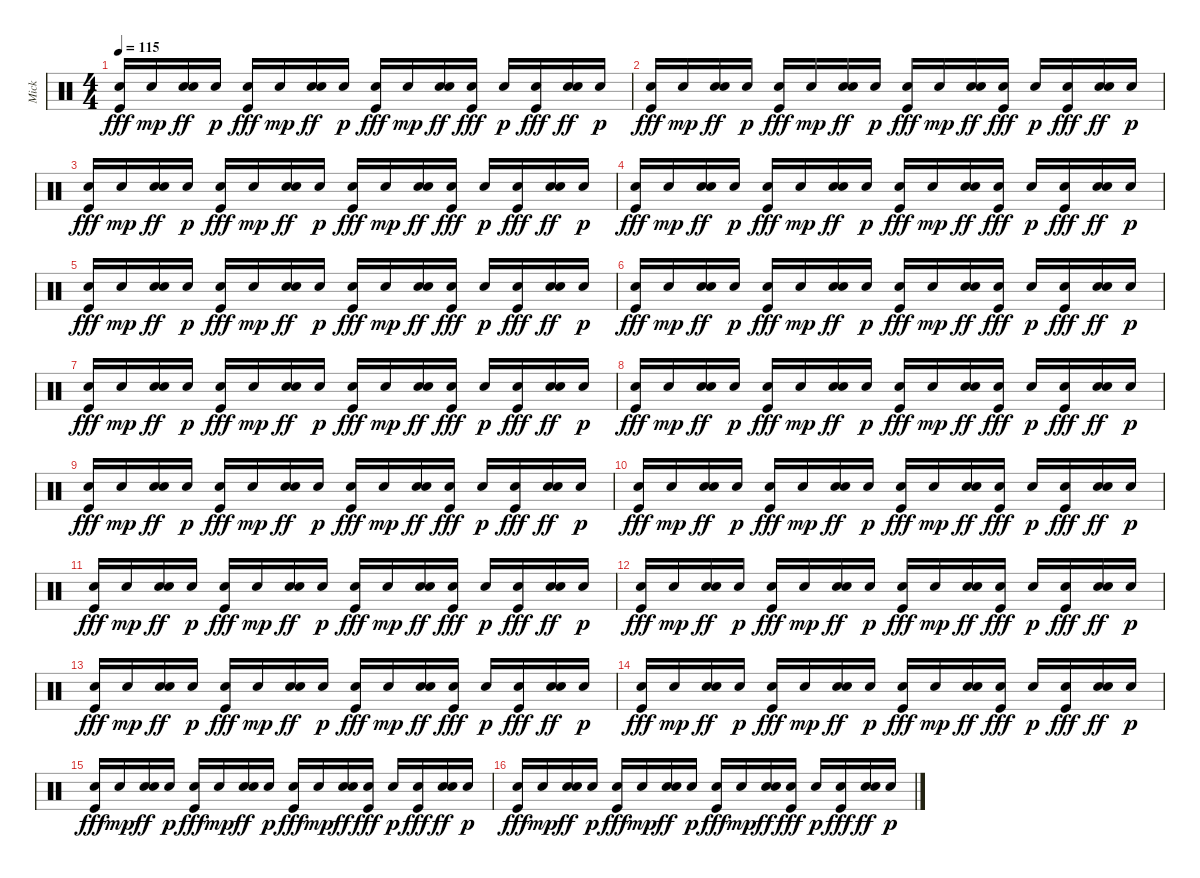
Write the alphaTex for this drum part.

\track ("Mick" "Mick") {instrument percussion}
\staff {score}
\articulation defaults
\ts (4 4)
\tempo 115
\clef neutral
\ks c
("Electric Snare (hit)" "Kick (hit)").16{dy fff} "Electric Snare (hit)".16{dy mp} ("Hand Clap (hit)" "Electric Snare (hit)").16{dy ff} "Electric Snare (hit)".16{dy p} ("Electric Snare (hit)" "Kick (hit)").16{dy fff} "Electric Snare (hit)".16{dy mp} ("Hand Clap (hit)" "Electric Snare (hit)").16{dy ff} "Electric Snare (hit)".16{dy p} ("Electric Snare (hit)" "Kick (hit)").16{dy fff} "Electric Snare (hit)".16{dy mp} ("Hand Clap (hit)" "Electric Snare (hit)").16{dy ff} ("Electric Snare (hit)" "Kick (hit)").16{dy fff} "Electric Snare (hit)".16{dy p} ("Electric Snare (hit)" "Kick (hit)").16{dy fff} ("Hand Clap (hit)" "Electric Snare (hit)").16{dy ff} "Electric Snare (hit)".16{dy p} |
("Electric Snare (hit)" "Kick (hit)").16{dy fff} "Electric Snare (hit)".16{dy mp} ("Hand Clap (hit)" "Electric Snare (hit)").16{dy ff} "Electric Snare (hit)".16{dy p} ("Electric Snare (hit)" "Kick (hit)").16{dy fff} "Electric Snare (hit)".16{dy mp} ("Hand Clap (hit)" "Electric Snare (hit)").16{dy ff} "Electric Snare (hit)".16{dy p} ("Electric Snare (hit)" "Kick (hit)").16{dy fff} "Electric Snare (hit)".16{dy mp} ("Hand Clap (hit)" "Electric Snare (hit)").16{dy ff} ("Electric Snare (hit)" "Kick (hit)").16{dy fff} "Electric Snare (hit)".16{dy p} ("Electric Snare (hit)" "Kick (hit)").16{dy fff} ("Hand Clap (hit)" "Electric Snare (hit)").16{dy ff} "Electric Snare (hit)".16{dy p} |
("Electric Snare (hit)" "Kick (hit)").16{dy fff} "Electric Snare (hit)".16{dy mp} ("Hand Clap (hit)" "Electric Snare (hit)").16{dy ff} "Electric Snare (hit)".16{dy p} ("Electric Snare (hit)" "Kick (hit)").16{dy fff} "Electric Snare (hit)".16{dy mp} ("Hand Clap (hit)" "Electric Snare (hit)").16{dy ff} "Electric Snare (hit)".16{dy p} ("Electric Snare (hit)" "Kick (hit)").16{dy fff} "Electric Snare (hit)".16{dy mp} ("Hand Clap (hit)" "Electric Snare (hit)").16{dy ff} ("Electric Snare (hit)" "Kick (hit)").16{dy fff} "Electric Snare (hit)".16{dy p} ("Electric Snare (hit)" "Kick (hit)").16{dy fff} ("Hand Clap (hit)" "Electric Snare (hit)").16{dy ff} "Electric Snare (hit)".16{dy p} |
("Electric Snare (hit)" "Kick (hit)").16{dy fff} "Electric Snare (hit)".16{dy mp} ("Hand Clap (hit)" "Electric Snare (hit)").16{dy ff} "Electric Snare (hit)".16{dy p} ("Electric Snare (hit)" "Kick (hit)").16{dy fff} "Electric Snare (hit)".16{dy mp} ("Hand Clap (hit)" "Electric Snare (hit)").16{dy ff} "Electric Snare (hit)".16{dy p} ("Electric Snare (hit)" "Kick (hit)").16{dy fff} "Electric Snare (hit)".16{dy mp} ("Hand Clap (hit)" "Electric Snare (hit)").16{dy ff} ("Electric Snare (hit)" "Kick (hit)").16{dy fff} "Electric Snare (hit)".16{dy p} ("Electric Snare (hit)" "Kick (hit)").16{dy fff} ("Hand Clap (hit)" "Electric Snare (hit)").16{dy ff} "Electric Snare (hit)".16{dy p} |
("Electric Snare (hit)" "Kick (hit)").16{dy fff} "Electric Snare (hit)".16{dy mp} ("Hand Clap (hit)" "Electric Snare (hit)").16{dy ff} "Electric Snare (hit)".16{dy p} ("Electric Snare (hit)" "Kick (hit)").16{dy fff} "Electric Snare (hit)".16{dy mp} ("Hand Clap (hit)" "Electric Snare (hit)").16{dy ff} "Electric Snare (hit)".16{dy p} ("Electric Snare (hit)" "Kick (hit)").16{dy fff} "Electric Snare (hit)".16{dy mp} ("Hand Clap (hit)" "Electric Snare (hit)").16{dy ff} ("Electric Snare (hit)" "Kick (hit)").16{dy fff} "Electric Snare (hit)".16{dy p} ("Electric Snare (hit)" "Kick (hit)").16{dy fff} ("Hand Clap (hit)" "Electric Snare (hit)").16{dy ff} "Electric Snare (hit)".16{dy p} |
("Electric Snare (hit)" "Kick (hit)").16{dy fff} "Electric Snare (hit)".16{dy mp} ("Hand Clap (hit)" "Electric Snare (hit)").16{dy ff} "Electric Snare (hit)".16{dy p} ("Electric Snare (hit)" "Kick (hit)").16{dy fff} "Electric Snare (hit)".16{dy mp} ("Hand Clap (hit)" "Electric Snare (hit)").16{dy ff} "Electric Snare (hit)".16{dy p} ("Electric Snare (hit)" "Kick (hit)").16{dy fff} "Electric Snare (hit)".16{dy mp} ("Hand Clap (hit)" "Electric Snare (hit)").16{dy ff} ("Electric Snare (hit)" "Kick (hit)").16{dy fff} "Electric Snare (hit)".16{dy p} ("Electric Snare (hit)" "Kick (hit)").16{dy fff} ("Hand Clap (hit)" "Electric Snare (hit)").16{dy ff} "Electric Snare (hit)".16{dy p} |
("Electric Snare (hit)" "Kick (hit)").16{dy fff} "Electric Snare (hit)".16{dy mp} ("Hand Clap (hit)" "Electric Snare (hit)").16{dy ff} "Electric Snare (hit)".16{dy p} ("Electric Snare (hit)" "Kick (hit)").16{dy fff} "Electric Snare (hit)".16{dy mp} ("Hand Clap (hit)" "Electric Snare (hit)").16{dy ff} "Electric Snare (hit)".16{dy p} ("Electric Snare (hit)" "Kick (hit)").16{dy fff} "Electric Snare (hit)".16{dy mp} ("Hand Clap (hit)" "Electric Snare (hit)").16{dy ff} ("Electric Snare (hit)" "Kick (hit)").16{dy fff} "Electric Snare (hit)".16{dy p} ("Electric Snare (hit)" "Kick (hit)").16{dy fff} ("Hand Clap (hit)" "Electric Snare (hit)").16{dy ff} "Electric Snare (hit)".16{dy p} |
("Electric Snare (hit)" "Kick (hit)").16{dy fff} "Electric Snare (hit)".16{dy mp} ("Hand Clap (hit)" "Electric Snare (hit)").16{dy ff} "Electric Snare (hit)".16{dy p} ("Electric Snare (hit)" "Kick (hit)").16{dy fff} "Electric Snare (hit)".16{dy mp} ("Hand Clap (hit)" "Electric Snare (hit)").16{dy ff} "Electric Snare (hit)".16{dy p} ("Electric Snare (hit)" "Kick (hit)").16{dy fff} "Electric Snare (hit)".16{dy mp} ("Hand Clap (hit)" "Electric Snare (hit)").16{dy ff} ("Electric Snare (hit)" "Kick (hit)").16{dy fff} "Electric Snare (hit)".16{dy p} ("Electric Snare (hit)" "Kick (hit)").16{dy fff} ("Hand Clap (hit)" "Electric Snare (hit)").16{dy ff} "Electric Snare (hit)".16{dy p} |
("Electric Snare (hit)" "Kick (hit)").16{dy fff} "Electric Snare (hit)".16{dy mp} ("Hand Clap (hit)" "Electric Snare (hit)").16{dy ff} "Electric Snare (hit)".16{dy p} ("Electric Snare (hit)" "Kick (hit)").16{dy fff} "Electric Snare (hit)".16{dy mp} ("Hand Clap (hit)" "Electric Snare (hit)").16{dy ff} "Electric Snare (hit)".16{dy p} ("Electric Snare (hit)" "Kick (hit)").16{dy fff} "Electric Snare (hit)".16{dy mp} ("Hand Clap (hit)" "Electric Snare (hit)").16{dy ff} ("Electric Snare (hit)" "Kick (hit)").16{dy fff} "Electric Snare (hit)".16{dy p} ("Electric Snare (hit)" "Kick (hit)").16{dy fff} ("Hand Clap (hit)" "Electric Snare (hit)").16{dy ff} "Electric Snare (hit)".16{dy p} |
("Electric Snare (hit)" "Kick (hit)").16{dy fff} "Electric Snare (hit)".16{dy mp} ("Hand Clap (hit)" "Electric Snare (hit)").16{dy ff} "Electric Snare (hit)".16{dy p} ("Electric Snare (hit)" "Kick (hit)").16{dy fff} "Electric Snare (hit)".16{dy mp} ("Hand Clap (hit)" "Electric Snare (hit)").16{dy ff} "Electric Snare (hit)".16{dy p} ("Electric Snare (hit)" "Kick (hit)").16{dy fff} "Electric Snare (hit)".16{dy mp} ("Hand Clap (hit)" "Electric Snare (hit)").16{dy ff} ("Electric Snare (hit)" "Kick (hit)").16{dy fff} "Electric Snare (hit)".16{dy p} ("Electric Snare (hit)" "Kick (hit)").16{dy fff} ("Hand Clap (hit)" "Electric Snare (hit)").16{dy ff} "Electric Snare (hit)".16{dy p} |
("Electric Snare (hit)" "Kick (hit)").16{dy fff} "Electric Snare (hit)".16{dy mp} ("Hand Clap (hit)" "Electric Snare (hit)").16{dy ff} "Electric Snare (hit)".16{dy p} ("Electric Snare (hit)" "Kick (hit)").16{dy fff} "Electric Snare (hit)".16{dy mp} ("Hand Clap (hit)" "Electric Snare (hit)").16{dy ff} "Electric Snare (hit)".16{dy p} ("Electric Snare (hit)" "Kick (hit)").16{dy fff} "Electric Snare (hit)".16{dy mp} ("Hand Clap (hit)" "Electric Snare (hit)").16{dy ff} ("Electric Snare (hit)" "Kick (hit)").16{dy fff} "Electric Snare (hit)".16{dy p} ("Electric Snare (hit)" "Kick (hit)").16{dy fff} ("Hand Clap (hit)" "Electric Snare (hit)").16{dy ff} "Electric Snare (hit)".16{dy p} |
("Electric Snare (hit)" "Kick (hit)").16{dy fff} "Electric Snare (hit)".16{dy mp} ("Hand Clap (hit)" "Electric Snare (hit)").16{dy ff} "Electric Snare (hit)".16{dy p} ("Electric Snare (hit)" "Kick (hit)").16{dy fff} "Electric Snare (hit)".16{dy mp} ("Hand Clap (hit)" "Electric Snare (hit)").16{dy ff} "Electric Snare (hit)".16{dy p} ("Electric Snare (hit)" "Kick (hit)").16{dy fff} "Electric Snare (hit)".16{dy mp} ("Hand Clap (hit)" "Electric Snare (hit)").16{dy ff} ("Electric Snare (hit)" "Kick (hit)").16{dy fff} "Electric Snare (hit)".16{dy p} ("Electric Snare (hit)" "Kick (hit)").16{dy fff} ("Hand Clap (hit)" "Electric Snare (hit)").16{dy ff} "Electric Snare (hit)".16{dy p} |
("Electric Snare (hit)" "Kick (hit)").16{dy fff} "Electric Snare (hit)".16{dy mp} ("Hand Clap (hit)" "Electric Snare (hit)").16{dy ff} "Electric Snare (hit)".16{dy p} ("Electric Snare (hit)" "Kick (hit)").16{dy fff} "Electric Snare (hit)".16{dy mp} ("Hand Clap (hit)" "Electric Snare (hit)").16{dy ff} "Electric Snare (hit)".16{dy p} ("Electric Snare (hit)" "Kick (hit)").16{dy fff} "Electric Snare (hit)".16{dy mp} ("Hand Clap (hit)" "Electric Snare (hit)").16{dy ff} ("Electric Snare (hit)" "Kick (hit)").16{dy fff} "Electric Snare (hit)".16{dy p} ("Electric Snare (hit)" "Kick (hit)").16{dy fff} ("Hand Clap (hit)" "Electric Snare (hit)").16{dy ff} "Electric Snare (hit)".16{dy p} |
("Electric Snare (hit)" "Kick (hit)").16{dy fff} "Electric Snare (hit)".16{dy mp} ("Hand Clap (hit)" "Electric Snare (hit)").16{dy ff} "Electric Snare (hit)".16{dy p} ("Electric Snare (hit)" "Kick (hit)").16{dy fff} "Electric Snare (hit)".16{dy mp} ("Hand Clap (hit)" "Electric Snare (hit)").16{dy ff} "Electric Snare (hit)".16{dy p} ("Electric Snare (hit)" "Kick (hit)").16{dy fff} "Electric Snare (hit)".16{dy mp} ("Hand Clap (hit)" "Electric Snare (hit)").16{dy ff} ("Electric Snare (hit)" "Kick (hit)").16{dy fff} "Electric Snare (hit)".16{dy p} ("Electric Snare (hit)" "Kick (hit)").16{dy fff} ("Hand Clap (hit)" "Electric Snare (hit)").16{dy ff} "Electric Snare (hit)".16{dy p} |
("Electric Snare (hit)" "Kick (hit)").16{dy fff} "Electric Snare (hit)".16{dy mp} ("Hand Clap (hit)" "Electric Snare (hit)").16{dy ff} "Electric Snare (hit)".16{dy p} ("Electric Snare (hit)" "Kick (hit)").16{dy fff} "Electric Snare (hit)".16{dy mp} ("Hand Clap (hit)" "Electric Snare (hit)").16{dy ff} "Electric Snare (hit)".16{dy p} ("Electric Snare (hit)" "Kick (hit)").16{dy fff} "Electric Snare (hit)".16{dy mp} ("Hand Clap (hit)" "Electric Snare (hit)").16{dy ff} ("Electric Snare (hit)" "Kick (hit)").16{dy fff} "Electric Snare (hit)".16{dy p} ("Electric Snare (hit)" "Kick (hit)").16{dy fff} ("Hand Clap (hit)" "Electric Snare (hit)").16{dy ff} "Electric Snare (hit)".16{dy p} |
("Electric Snare (hit)" "Kick (hit)").16{dy fff} "Electric Snare (hit)".16{dy mp} ("Hand Clap (hit)" "Electric Snare (hit)").16{dy ff} "Electric Snare (hit)".16{dy p} ("Electric Snare (hit)" "Kick (hit)").16{dy fff} "Electric Snare (hit)".16{dy mp} ("Hand Clap (hit)" "Electric Snare (hit)").16{dy ff} "Electric Snare (hit)".16{dy p} ("Electric Snare (hit)" "Kick (hit)").16{dy fff} "Electric Snare (hit)".16{dy mp} ("Hand Clap (hit)" "Electric Snare (hit)").16{dy ff} ("Electric Snare (hit)" "Kick (hit)").16{dy fff} "Electric Snare (hit)".16{dy p} ("Electric Snare (hit)" "Kick (hit)").16{dy fff} ("Hand Clap (hit)" "Electric Snare (hit)").16{dy ff} "Electric Snare (hit)".16{dy p}
